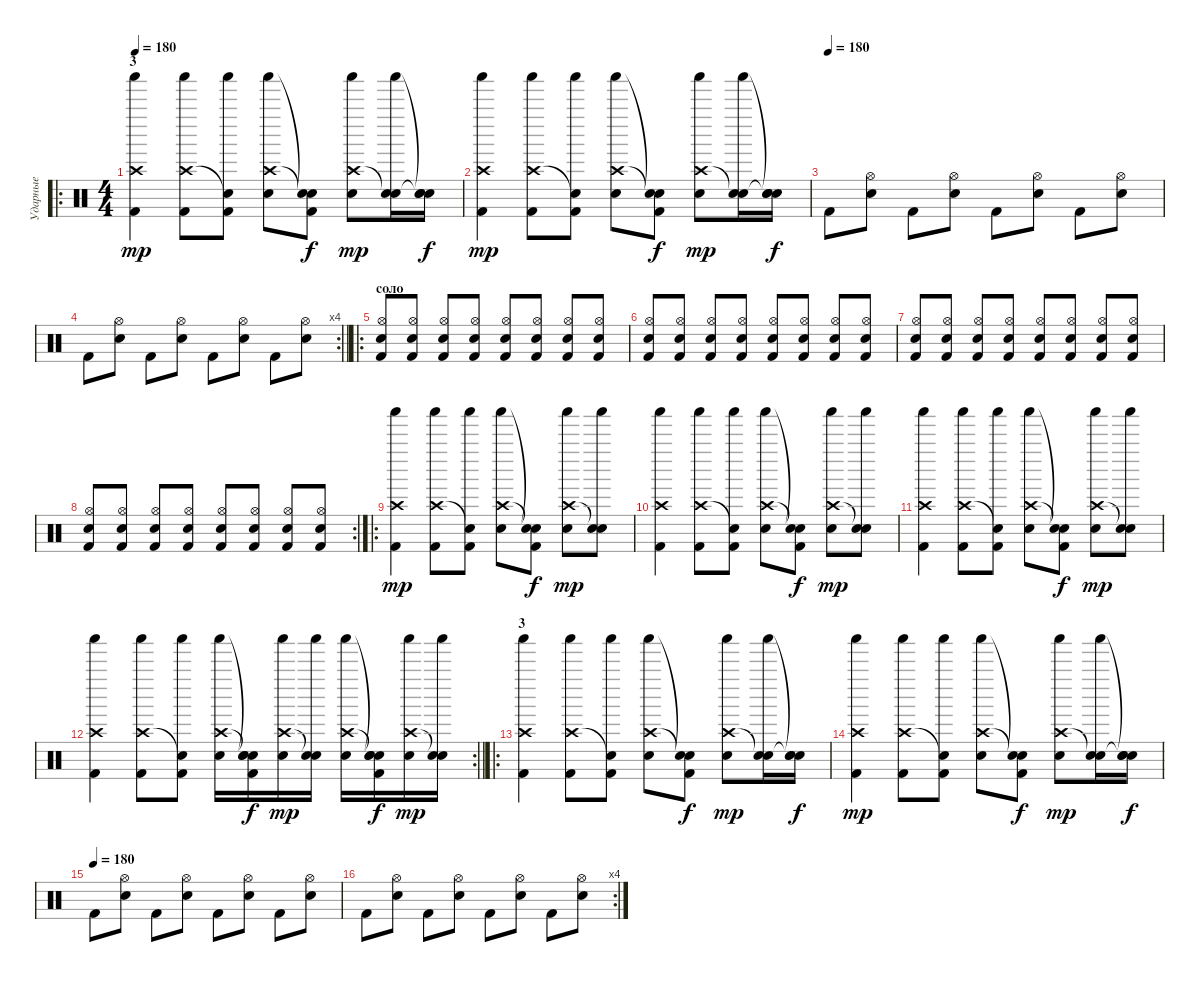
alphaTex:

\track ("Ударные" "Ударные") {instrument percussion}
\staff {score}
\articulation defaults
\ro
\ts (4 4)
\section ("" "3")
\tempo 180
\clef neutral
\ks c
("Crash high (hit)" "Shaker (hit)" "Kick (hit) 2").4{dy mp} ("Crash high (hit)" "Shaker (hit)" "Kick (hit) 2").8 ("Snare (hit)"{t} "Shaker (hit)" "Kick (hit) 2").8 ("Crash high (hit)" "Shaker (hit)" "Snare (hit) 2").8 ("Snare (hit)"{t} "Snare (hit)"{t} "Kick (hit) 2").8{dy f} ("Crash high (hit)" "Shaker (hit)" "Snare (hit) 2").8{dy mp} ("Snare (hit)"{t} "Shaker (hit)" "Snare (hit) 2").16 ("Snare (hit)"{t} "Snare (hit)"{t} "Snare (hit) 2").16{dy f} |
("Crash high (hit)" "Shaker (hit)" "Kick (hit) 2").4{dy mp} ("Crash high (hit)" "Shaker (hit)" "Kick (hit) 2").8 ("Snare (hit)"{t} "Shaker (hit)" "Kick (hit) 2").8 ("Crash high (hit)" "Shaker (hit)" "Snare (hit) 2").8 ("Snare (hit)"{t} "Snare (hit)"{t} "Kick (hit) 2").8{dy f} ("Crash high (hit)" "Shaker (hit)" "Snare (hit) 2").8{dy mp} ("Snare (hit)"{t} "Shaker (hit)" "Snare (hit) 2").16 ("Snare (hit)"{t} "Snare (hit)"{t} "Snare (hit) 2").16{dy f} |
\tempo (180)
"Kick (hit) 2".8 ("Hi-Hat (open)" "Electric Snare (hit)").8 "Kick (hit) 2".8 ("Hi-Hat (open)" "Electric Snare (hit)").8 "Kick (hit) 2".8 ("Hi-Hat (open)" "Electric Snare (hit)").8 "Kick (hit) 2".8 ("Hi-Hat (open)" "Electric Snare (hit)").8 |
\rc 4
\barLineRight lightlight "Kick (hit) 2".8
("Hi-Hat (open)" "Electric Snare (hit)").8 "Kick (hit) 2".8 ("Hi-Hat (open)" "Electric Snare (hit)").8 "Kick (hit) 2".8 ("Hi-Hat (open)" "Electric Snare (hit)").8 "Kick (hit) 2".8 ("Hi-Hat (open)" "Electric Snare (hit)").8 |
\ro
\section ("" "соло")
("Hi-Hat (open)" "Electric Snare (hit)" "Kick (hit) 2").8 ("Hi-Hat (open)" "Electric Snare (hit)" "Kick (hit) 2").8 ("Hi-Hat (open)" "Electric Snare (hit)" "Kick (hit) 2").8 ("Hi-Hat (open)" "Electric Snare (hit)" "Kick (hit) 2").8 ("Hi-Hat (open)" "Electric Snare (hit)" "Kick (hit) 2").8 ("Hi-Hat (open)" "Electric Snare (hit)" "Kick (hit) 2").8 ("Hi-Hat (open)" "Electric Snare (hit)" "Kick (hit) 2").8 ("Hi-Hat (open)" "Electric Snare (hit)" "Kick (hit) 2").8 |
("Hi-Hat (open)" "Electric Snare (hit)" "Kick (hit) 2").8 ("Hi-Hat (open)" "Electric Snare (hit)" "Kick (hit) 2").8 ("Hi-Hat (open)" "Electric Snare (hit)" "Kick (hit) 2").8 ("Hi-Hat (open)" "Electric Snare (hit)" "Kick (hit) 2").8 ("Hi-Hat (open)" "Electric Snare (hit)" "Kick (hit) 2").8 ("Hi-Hat (open)" "Electric Snare (hit)" "Kick (hit) 2").8 ("Hi-Hat (open)" "Electric Snare (hit)" "Kick (hit) 2").8 ("Hi-Hat (open)" "Electric Snare (hit)" "Kick (hit) 2").8 |
("Hi-Hat (open)" "Electric Snare (hit)" "Kick (hit) 2").8 ("Hi-Hat (open)" "Electric Snare (hit)" "Kick (hit) 2").8 ("Hi-Hat (open)" "Electric Snare (hit)" "Kick (hit) 2").8 ("Hi-Hat (open)" "Electric Snare (hit)" "Kick (hit) 2").8 ("Hi-Hat (open)" "Electric Snare (hit)" "Kick (hit) 2").8 ("Hi-Hat (open)" "Electric Snare (hit)" "Kick (hit) 2").8 ("Hi-Hat (open)" "Electric Snare (hit)" "Kick (hit) 2").8 ("Hi-Hat (open)" "Electric Snare (hit)" "Kick (hit) 2").8 |
\rc 2
("Hi-Hat (open)" "Electric Snare (hit)" "Kick (hit) 2").8 ("Hi-Hat (open)" "Electric Snare (hit)" "Kick (hit) 2").8 ("Hi-Hat (open)" "Electric Snare (hit)" "Kick (hit) 2").8 ("Hi-Hat (open)" "Electric Snare (hit)" "Kick (hit) 2").8 ("Hi-Hat (open)" "Electric Snare (hit)" "Kick (hit) 2").8 ("Hi-Hat (open)" "Electric Snare (hit)" "Kick (hit) 2").8 ("Hi-Hat (open)" "Electric Snare (hit)" "Kick (hit) 2").8 ("Hi-Hat (open)" "Electric Snare (hit)" "Kick (hit) 2").8 |
\ro
("Crash high (hit)" "Shaker (hit)" "Kick (hit) 2").4{dy mp} ("Crash high (hit)" "Shaker (hit)" "Kick (hit) 2").8 ("Snare (hit)"{t} "Shaker (hit)" "Kick (hit) 2").8 ("Crash high (hit)" "Shaker (hit)" "Electric Snare (hit)").8 ("Snare (hit)"{t} "Snare (hit)"{t} "Kick (hit) 2").8{dy f} ("Crash high (hit)" "Shaker (hit)" "Electric Snare (hit)").8{dy mp} ("Snare (hit)"{t} "Shaker (hit)" "Electric Snare (hit)").8 |
("Crash high (hit)" "Shaker (hit)" "Kick (hit) 2").4 ("Crash high (hit)" "Shaker (hit)" "Kick (hit) 2").8 ("Snare (hit)"{t} "Shaker (hit)" "Kick (hit) 2").8 ("Crash high (hit)" "Shaker (hit)" "Electric Snare (hit)").8 ("Snare (hit)"{t} "Snare (hit)"{t} "Kick (hit) 2").8{dy f} ("Crash high (hit)" "Shaker (hit)" "Electric Snare (hit)").8{dy mp} ("Snare (hit)"{t} "Shaker (hit)" "Electric Snare (hit)").8 |
("Crash high (hit)" "Shaker (hit)" "Kick (hit) 2").4 ("Crash high (hit)" "Shaker (hit)" "Kick (hit) 2").8 ("Snare (hit)"{t} "Shaker (hit)" "Kick (hit) 2").8 ("Crash high (hit)" "Shaker (hit)" "Electric Snare (hit)").8 ("Snare (hit)"{t} "Snare (hit)"{t} "Kick (hit) 2").8{dy f} ("Crash high (hit)" "Shaker (hit)" "Electric Snare (hit)").8{dy mp} ("Snare (hit)"{t} "Shaker (hit)" "Electric Snare (hit)").8 |
\rc 2
\barLineRight lightlight
("Crash high (hit)" "Shaker (hit)" "Kick (hit) 2").4 ("Crash high (hit)" "Shaker (hit)" "Kick (hit) 2").8 ("Snare (hit)"{t} "Shaker (hit)" "Kick (hit) 2").8 ("Crash high (hit)" "Shaker (hit)" "Electric Snare (hit)").16 ("Snare (hit)"{t} "Snare (hit)"{t} "Electric Snare (hit)" "Kick (hit) 2").16{dy f} ("Crash high (hit)" "Shaker (hit)" "Electric Snare (hit)").16{dy mp} ("Snare (hit)"{t} "Shaker (hit)" "Electric Snare (hit)").16 ("Crash high (hit)" "Shaker (hit)" "Electric Snare (hit)").16 ("Snare (hit)"{t} "Snare (hit)"{t} "Electric Snare (hit)" "Kick (hit) 2").16{dy f} ("Crash high (hit)" "Shaker (hit)" "Electric Snare (hit)").16{dy mp} ("Snare (hit)"{t} "Shaker (hit)" "Electric Snare (hit)").16 |
\ro
\section ("" "3")
("Crash high (hit)" "Shaker (hit)" "Kick (hit) 2").4 ("Crash high (hit)" "Shaker (hit)" "Kick (hit) 2").8 ("Snare (hit)"{t} "Shaker (hit)" "Kick (hit) 2").8 ("Crash high (hit)" "Shaker (hit)" "Snare (hit) 2").8 ("Snare (hit)"{t} "Snare (hit)"{t} "Kick (hit) 2").8{dy f} ("Crash high (hit)" "Shaker (hit)" "Snare (hit) 2").8{dy mp} ("Snare (hit)"{t} "Shaker (hit)" "Snare (hit) 2").16 ("Snare (hit)"{t} "Snare (hit)"{t} "Snare (hit) 2").16{dy f} |
("Crash high (hit)" "Shaker (hit)" "Kick (hit) 2").4{dy mp} ("Crash high (hit)" "Shaker (hit)" "Kick (hit) 2").8 ("Snare (hit)"{t} "Shaker (hit)" "Kick (hit) 2").8 ("Crash high (hit)" "Shaker (hit)" "Snare (hit) 2").8 ("Snare (hit)"{t} "Snare (hit)"{t} "Kick (hit) 2").8{dy f} ("Crash high (hit)" "Shaker (hit)" "Snare (hit) 2").8{dy mp} ("Snare (hit)"{t} "Shaker (hit)" "Snare (hit) 2").16 ("Snare (hit)"{t} "Snare (hit)"{t} "Snare (hit) 2").16{dy f} |
\tempo (180)
"Kick (hit) 2".8 ("Hi-Hat (open)" "Electric Snare (hit)").8 "Kick (hit) 2".8 ("Hi-Hat (open)" "Electric Snare (hit)").8 "Kick (hit) 2".8 ("Hi-Hat (open)" "Electric Snare (hit)").8 "Kick (hit) 2".8 ("Hi-Hat (open)" "Electric Snare (hit)").8 |
\rc 4 "Kick (hit) 2".8
("Hi-Hat (open)" "Electric Snare (hit)").8 "Kick (hit) 2".8 ("Hi-Hat (open)" "Electric Snare (hit)").8 "Kick (hit) 2".8 ("Hi-Hat (open)" "Electric Snare (hit)").8 "Kick (hit) 2".8 ("Hi-Hat (open)" "Electric Snare (hit)").8
